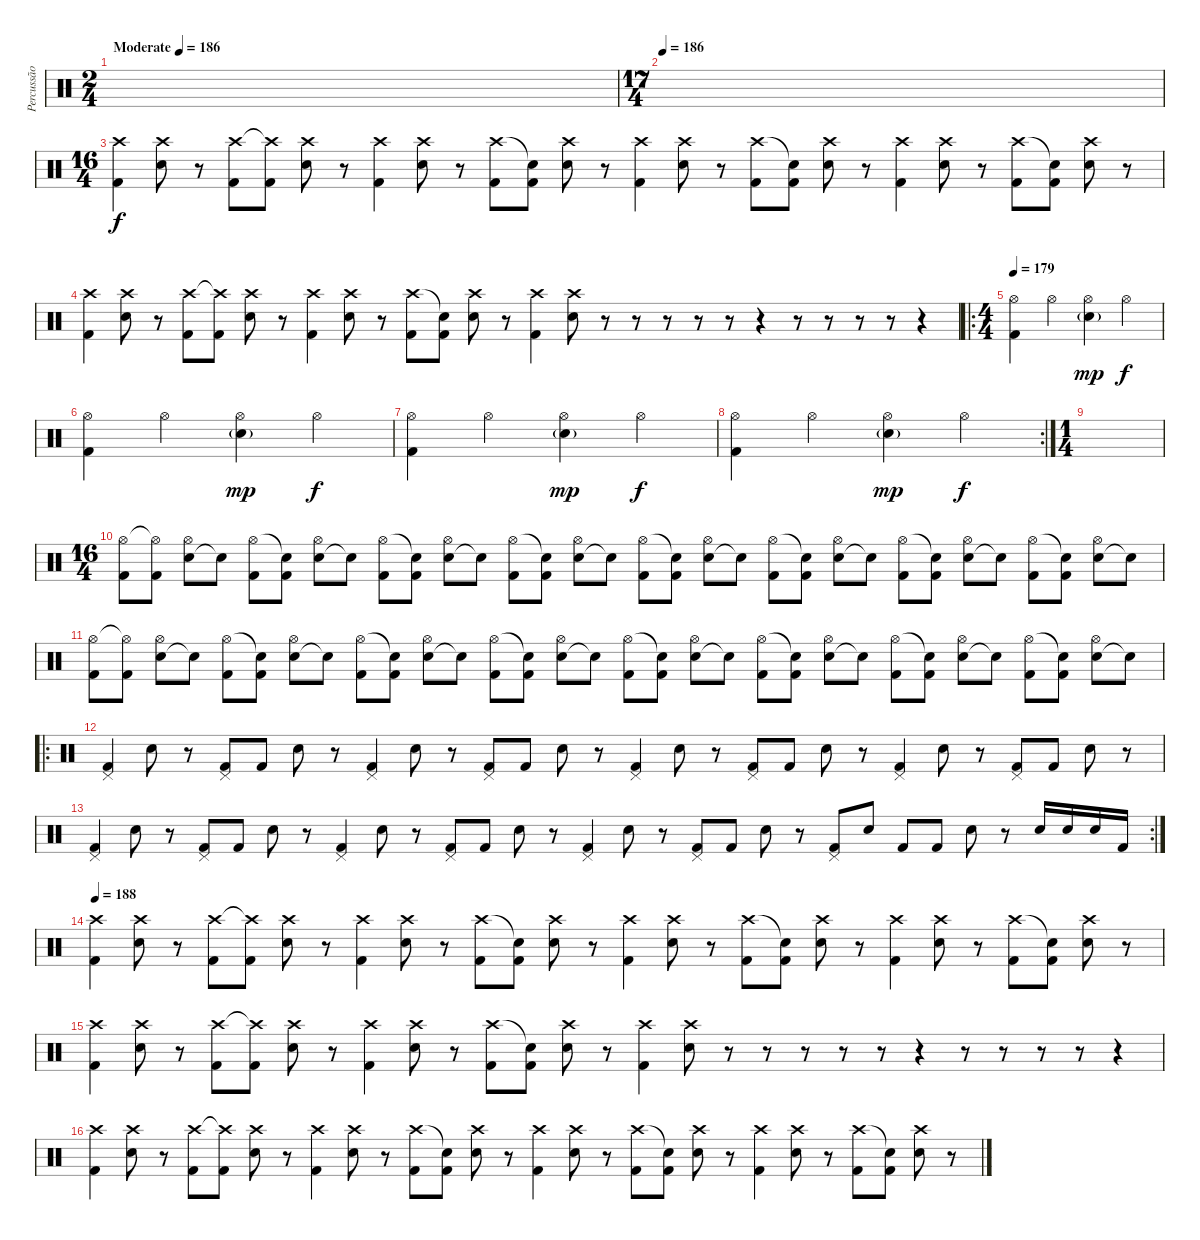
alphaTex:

\track ("Percussão" "Percussão") {instrument percussion}
\staff {score}
\articulation defaults
\ts (2 4)
\tempo (186 "Moderate")
\tempo 200
\tempo (186 "Moderate")
\clef neutral
\ks c
|
\ts (17 4)
\tempo 188
\tempo 186
|
\ts (16 4)
("Kick (hit) 2" "Crash high (hit)").4 ("Snare (hit) 2" "Crash high (hit)").8 r.8 ("Kick (hit) 2" "Crash high (hit)").8 ("Kick (hit) 2" "Crash high (hit)"{t}).8 ("Snare (hit) 2" "Crash high (hit)").8 r.8 ("Kick (hit) 2" "Crash high (hit)").4 ("Snare (hit) 2" "Crash high (hit)").8 r.8 ("Kick (hit) 2" "Crash high (hit)").8 ("Kick (hit) 2" "Snare (hit)"{t}).8 ("Snare (hit) 2" "Crash high (hit)").8 r.8 ("Kick (hit) 2" "Crash high (hit)").4 ("Snare (hit) 2" "Crash high (hit)").8 r.8 ("Kick (hit) 2" "Crash high (hit)").8 ("Kick (hit) 2" "Snare (hit)"{t}).8 ("Snare (hit) 2" "Crash high (hit)").8 r.8 ("Crash high (hit)" "Kick (hit) 2").4 ("Crash high (hit)" "Snare (hit) 2").8 r.8 ("Kick (hit) 2" "Crash high (hit)").8 ("Kick (hit) 2" "Snare (hit)"{t}).8 ("Snare (hit) 2" "Crash high (hit)").8 r.8 |
("Kick (hit) 2" "Crash high (hit)").4 ("Snare (hit) 2" "Crash high (hit)").8 r.8 ("Kick (hit) 2" "Crash high (hit)").8 ("Kick (hit) 2" "Crash high (hit)"{t}).8 ("Snare (hit) 2" "Crash high (hit)").8 r.8 ("Kick (hit) 2" "Crash high (hit)").4 ("Snare (hit) 2" "Crash high (hit)").8 r.8 ("Kick (hit) 2" "Crash high (hit)").8 ("Kick (hit) 2" "Snare (hit)"{t}).8 ("Snare (hit) 2" "Crash high (hit)").8 r.8 ("Kick (hit) 2" "Crash high (hit)").4 ("Snare (hit) 2" "Crash high (hit)").8 r.8 r.8 r.8 r.8 r.8 r.4 r.8 r.8 r.8 r.8 r.4 |
\ro
\ts (4 4)
\tempo 179
("Kick (hit) 2" "Hi-Hat (open)").4 "Hi-Hat (open)".4 ("Electric Snare (hit)"{g} "Hi-Hat (open)").4{dy mp} "Hi-Hat (open)".4{dy f} |
("Kick (hit) 2" "Hi-Hat (open)").4 "Hi-Hat (open)".4 ("Electric Snare (hit)"{g} "Hi-Hat (open)").4{dy mp} "Hi-Hat (open)".4{dy f} |
("Kick (hit) 2" "Hi-Hat (open)").4 "Hi-Hat (open)".4 ("Electric Snare (hit)"{g} "Hi-Hat (open)").4{dy mp} "Hi-Hat (open)".4{dy f} |
\rc 2
("Kick (hit) 2" "Hi-Hat (open)").4 "Hi-Hat (open)".4 ("Electric Snare (hit)"{g} "Hi-Hat (open)").4{dy mp} "Hi-Hat (open)".4{dy f} |
\ts (1 4)
|
\ts (16 4)
("Kick (hit) 2" "Hi-Hat (open)").8 ("Kick (hit) 2" "Hi-Hat (open)"{t}).8 ("Snare (hit) 2" "Hi-Hat (open)").8 "Snare (hit)"{t}.8 ("Kick (hit) 2" "Hi-Hat (open)").8 ("Kick (hit) 2" "Snare (hit)"{t}).8 ("Snare (hit) 2" "Hi-Hat (open)").8 "Snare (hit)"{t}.8 ("Kick (hit) 2" "Hi-Hat (open)").8 ("Kick (hit) 2" "Snare (hit)"{t}).8 ("Snare (hit) 2" "Hi-Hat (open)").8 "Snare (hit)"{t}.8 ("Kick (hit) 2" "Hi-Hat (open)").8 ("Kick (hit) 2" "Snare (hit)"{t}).8 ("Snare (hit) 2" "Hi-Hat (open)").8 "Snare (hit)"{t}.8 ("Kick (hit) 2" "Hi-Hat (open)").8 ("Kick (hit) 2" "Snare (hit)"{t}).8 ("Snare (hit) 2" "Hi-Hat (open)").8 "Snare (hit)"{t}.8 ("Kick (hit) 2" "Hi-Hat (open)").8 ("Kick (hit) 2" "Snare (hit)"{t}).8 ("Snare (hit) 2" "Hi-Hat (open)").8 "Snare (hit)"{t}.8 ("Kick (hit) 2" "Hi-Hat (open)").8 ("Kick (hit) 2" "Snare (hit)"{t}).8 ("Snare (hit) 2" "Hi-Hat (open)").8 "Snare (hit)"{t}.8 ("Kick (hit) 2" "Hi-Hat (open)").8 ("Kick (hit) 2" "Snare (hit)"{t}).8 ("Snare (hit) 2" "Hi-Hat (open)").8 "Snare (hit)"{t}.8 |
("Kick (hit) 2" "Hi-Hat (open)").8 ("Kick (hit) 2" "Hi-Hat (open)"{t}).8 ("Snare (hit) 2" "Hi-Hat (open)").8 "Snare (hit)"{t}.8 ("Kick (hit) 2" "Hi-Hat (open)").8 ("Kick (hit) 2" "Snare (hit)"{t}).8 ("Snare (hit) 2" "Hi-Hat (open)").8 "Snare (hit)"{t}.8 ("Kick (hit) 2" "Hi-Hat (open)").8 ("Kick (hit) 2" "Snare (hit)"{t}).8 ("Snare (hit) 2" "Hi-Hat (open)").8 "Snare (hit)"{t}.8 ("Kick (hit) 2" "Hi-Hat (open)").8 ("Kick (hit) 2" "Snare (hit)"{t}).8 ("Snare (hit) 2" "Hi-Hat (open)").8 "Snare (hit)"{t}.8 ("Kick (hit) 2" "Hi-Hat (open)").8 ("Kick (hit) 2" "Snare (hit)"{t}).8 ("Snare (hit) 2" "Hi-Hat (open)").8 "Snare (hit)"{t}.8 ("Kick (hit) 2" "Hi-Hat (open)").8 ("Kick (hit) 2" "Snare (hit)"{t}).8 ("Snare (hit) 2" "Hi-Hat (open)").8 "Snare (hit)"{t}.8 ("Kick (hit) 2" "Hi-Hat (open)").8 ("Kick (hit) 2" "Snare (hit)"{t}).8 ("Snare (hit) 2" "Hi-Hat (open)").8 "Snare (hit)"{t}.8 ("Kick (hit) 2" "Hi-Hat (open)").8 ("Kick (hit) 2" "Snare (hit)"{t}).8 ("Snare (hit) 2" "Hi-Hat (open)").8 "Snare (hit)"{t}.8 |
\ro
("Kick (hit) 2" "Pedal Hi-Hat (hit)").4 "Snare (hit) 2".8 r.8 ("Kick (hit) 2" "Pedal Hi-Hat (hit)").8 "Kick (hit) 2".8 "Snare (hit) 2".8 r.8 ("Kick (hit) 2" "Pedal Hi-Hat (hit)").4 "Snare (hit) 2".8 r.8 ("Kick (hit) 2" "Pedal Hi-Hat (hit)").8 "Kick (hit) 2".8 "Snare (hit) 2".8 r.8 ("Kick (hit) 2" "Pedal Hi-Hat (hit)").4 "Snare (hit) 2".8 r.8 ("Kick (hit) 2" "Pedal Hi-Hat (hit)").8 "Kick (hit) 2".8 "Snare (hit) 2".8 r.8 ("Kick (hit) 2" "Pedal Hi-Hat (hit)").4 "Snare (hit) 2".8 r.8 ("Kick (hit) 2" "Pedal Hi-Hat (hit)").8 "Kick (hit) 2".8 "Snare (hit) 2".8 r.8 |
\rc 2
("Kick (hit) 2" "Pedal Hi-Hat (hit)").4 "Snare (hit) 2".8 r.8 ("Kick (hit) 2" "Pedal Hi-Hat (hit)").8 "Kick (hit) 2".8 "Snare (hit) 2".8 r.8 ("Kick (hit) 2" "Pedal Hi-Hat (hit)").4 "Snare (hit) 2".8 r.8 ("Kick (hit) 2" "Pedal Hi-Hat (hit)").8 "Kick (hit) 2".8 "Snare (hit) 2".8 r.8 ("Kick (hit) 2" "Pedal Hi-Hat (hit)").4 "Snare (hit) 2".8 r.8 ("Kick (hit) 2" "Pedal Hi-Hat (hit)").8 "Kick (hit) 2".8 "Snare (hit) 2".8 r.8 ("Kick (hit) 2" "Pedal Hi-Hat (hit)").8 "Snare (hit) 2".8 "Kick (hit) 2".8 "Kick (hit) 2".8 "Snare (hit) 2".8 r.8 "Snare (hit) 2".16 "Snare (hit) 2".16 "Snare (hit) 2".16 "Kick (hit) 2".16 |
\tempo 186
\tempo 188
("Kick (hit) 2" "Crash high (hit)").4 ("Snare (hit) 2" "Crash high (hit)").8 r.8 ("Kick (hit) 2" "Crash high (hit)").8 ("Kick (hit) 2" "Crash high (hit)"{t}).8 ("Snare (hit) 2" "Crash high (hit)").8 r.8 ("Kick (hit) 2" "Crash high (hit)").4 ("Snare (hit) 2" "Crash high (hit)").8 r.8 ("Kick (hit) 2" "Crash high (hit)").8 ("Kick (hit) 2" "Snare (hit)"{t}).8 ("Snare (hit) 2" "Crash high (hit)").8 r.8 ("Kick (hit) 2" "Crash high (hit)").4 ("Snare (hit) 2" "Crash high (hit)").8 r.8 ("Kick (hit) 2" "Crash high (hit)").8 ("Kick (hit) 2" "Snare (hit)"{t}).8 ("Snare (hit) 2" "Crash high (hit)").8 r.8 ("Crash high (hit)" "Kick (hit) 2").4 ("Crash high (hit)" "Snare (hit) 2").8 r.8 ("Kick (hit) 2" "Crash high (hit)").8 ("Kick (hit) 2" "Snare (hit)"{t}).8 ("Snare (hit) 2" "Crash high (hit)").8 r.8 |
("Kick (hit) 2" "Crash high (hit)").4 ("Snare (hit) 2" "Crash high (hit)").8 r.8 ("Kick (hit) 2" "Crash high (hit)").8 ("Kick (hit) 2" "Crash high (hit)"{t}).8 ("Snare (hit) 2" "Crash high (hit)").8 r.8 ("Kick (hit) 2" "Crash high (hit)").4 ("Snare (hit) 2" "Crash high (hit)").8 r.8 ("Kick (hit) 2" "Crash high (hit)").8 ("Kick (hit) 2" "Snare (hit)"{t}).8 ("Snare (hit) 2" "Crash high (hit)").8 r.8 ("Kick (hit) 2" "Crash high (hit)").4 ("Snare (hit) 2" "Crash high (hit)").8 r.8 r.8 r.8 r.8 r.8 r.4 r.8 r.8 r.8 r.8 r.4 |
("Kick (hit) 2" "Crash high (hit)").4 ("Snare (hit) 2" "Crash high (hit)").8 r.8 ("Kick (hit) 2" "Crash high (hit)").8 ("Kick (hit) 2" "Crash high (hit)"{t}).8 ("Snare (hit) 2" "Crash high (hit)").8 r.8 ("Kick (hit) 2" "Crash high (hit)").4 ("Snare (hit) 2" "Crash high (hit)").8 r.8 ("Kick (hit) 2" "Crash high (hit)").8 ("Kick (hit) 2" "Snare (hit)"{t}).8 ("Snare (hit) 2" "Crash high (hit)").8 r.8 ("Kick (hit) 2" "Crash high (hit)").4 ("Snare (hit) 2" "Crash high (hit)").8 r.8 ("Kick (hit) 2" "Crash high (hit)").8 ("Kick (hit) 2" "Snare (hit)"{t}).8 ("Snare (hit) 2" "Crash high (hit)").8 r.8 ("Crash high (hit)" "Kick (hit) 2").4 ("Crash high (hit)" "Snare (hit) 2").8 r.8 ("Kick (hit) 2" "Crash high (hit)").8 ("Kick (hit) 2" "Snare (hit)"{t}).8 ("Snare (hit) 2" "Crash high (hit)").8 r.8
